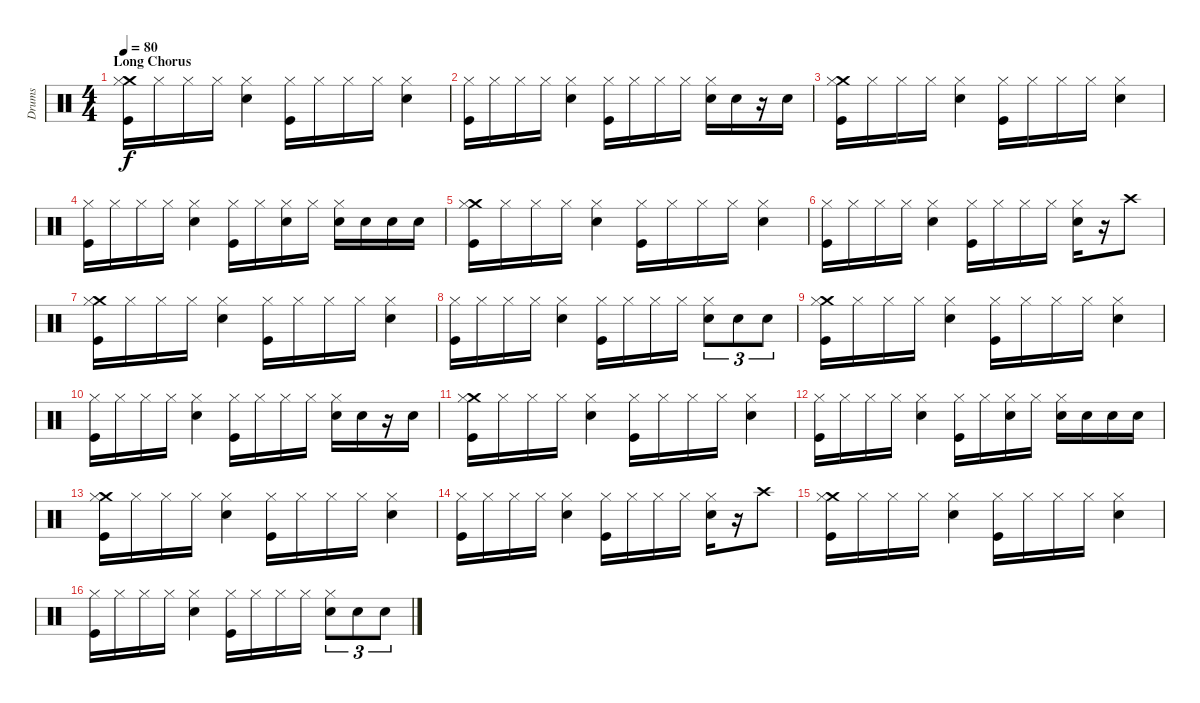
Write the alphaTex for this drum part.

\track ("Drums" "Drums") {instrument percussion}
\staff {score}
\articulation defaults
\ts (4 4)
\section ("" "Long Chorus")
\tempo 80
\clef neutral
\ks c
("Crash medium (hit)" "Hi-Hat (closed)" "Kick (hit)").16{dy f} "Hi-Hat (closed)".16 "Hi-Hat (closed)".16 "Hi-Hat (closed)".16 ("Hi-Hat (closed)" "Snare (hit) 2").4 ("Hi-Hat (closed)" "Kick (hit)").16 "Hi-Hat (closed)".16 "Hi-Hat (closed)".16 "Hi-Hat (closed)".16 ("Hi-Hat (closed)" "Snare (hit) 2").4 |
("Hi-Hat (closed)" "Kick (hit)").16 "Hi-Hat (closed)".16 "Hi-Hat (closed)".16 "Hi-Hat (closed)".16 ("Hi-Hat (closed)" "Snare (hit) 2").4 ("Hi-Hat (closed)" "Kick (hit)").16 "Hi-Hat (closed)".16 "Hi-Hat (closed)".16 "Hi-Hat (closed)".16 ("Hi-Hat (closed)" "Snare (hit) 2").16 "Snare (hit) 2".16 r.16 "Snare (hit) 2".16 |
("Crash medium (hit)" "Hi-Hat (closed)" "Kick (hit)").16 "Hi-Hat (closed)".16 "Hi-Hat (closed)".16 "Hi-Hat (closed)".16 ("Hi-Hat (closed)" "Snare (hit) 2").4 ("Hi-Hat (closed)" "Kick (hit)").16 "Hi-Hat (closed)".16 "Hi-Hat (closed)".16 "Hi-Hat (closed)".16 ("Hi-Hat (closed)" "Snare (hit) 2").4 |
("Hi-Hat (closed)" "Kick (hit)").16 "Hi-Hat (closed)".16 "Hi-Hat (closed)".16 "Hi-Hat (closed)".16 ("Hi-Hat (closed)" "Snare (hit) 2").4 ("Hi-Hat (closed)" "Kick (hit)").16 "Hi-Hat (closed)".16 ("Hi-Hat (closed)" "Snare (hit) 2").16 "Hi-Hat (closed)".16 ("Hi-Hat (closed)" "Snare (hit) 2").16 "Snare (hit) 2".16 "Snare (hit) 2".16 "Snare (hit) 2".16 |
("Crash medium (hit)" "Hi-Hat (closed)" "Kick (hit)").16 "Hi-Hat (closed)".16 "Hi-Hat (closed)".16 "Hi-Hat (closed)".16 ("Hi-Hat (closed)" "Snare (hit) 2").4 ("Hi-Hat (closed)" "Kick (hit)").16 "Hi-Hat (closed)".16 "Hi-Hat (closed)".16 "Hi-Hat (closed)".16 ("Hi-Hat (closed)" "Snare (hit) 2").4 |
("Hi-Hat (closed)" "Kick (hit)").16 "Hi-Hat (closed)".16 "Hi-Hat (closed)".16 "Hi-Hat (closed)".16 ("Hi-Hat (closed)" "Snare (hit) 2").4 ("Hi-Hat (closed)" "Kick (hit)").16 "Hi-Hat (closed)".16 "Hi-Hat (closed)".16 "Hi-Hat (closed)".16 ("Hi-Hat (closed)" "Snare (hit) 2").16 r.16 "Crash high (hit)".8 |
("Crash medium (hit)" "Hi-Hat (closed)" "Kick (hit)").16 "Hi-Hat (closed)".16 "Hi-Hat (closed)".16 "Hi-Hat (closed)".16 ("Hi-Hat (closed)" "Snare (hit) 2").4 ("Hi-Hat (closed)" "Kick (hit)").16 "Hi-Hat (closed)".16 "Hi-Hat (closed)".16 "Hi-Hat (closed)".16 ("Hi-Hat (closed)" "Snare (hit) 2").4 |
("Hi-Hat (closed)" "Kick (hit)").16 "Hi-Hat (closed)".16 "Hi-Hat (closed)".16 "Hi-Hat (closed)".16 ("Hi-Hat (closed)" "Snare (hit) 2").4 ("Hi-Hat (closed)" "Kick (hit)").16 "Hi-Hat (closed)".16 "Hi-Hat (closed)".16 "Hi-Hat (closed)".16 ("Hi-Hat (closed)" "Snare (hit) 2").8{tu (3 2)} "Snare (hit) 2".8{tu (3 2)} "Snare (hit) 2".8{tu (3 2)} |
("Crash medium (hit)" "Hi-Hat (closed)" "Kick (hit)").16 "Hi-Hat (closed)".16 "Hi-Hat (closed)".16 "Hi-Hat (closed)".16 ("Hi-Hat (closed)" "Snare (hit) 2").4 ("Hi-Hat (closed)" "Kick (hit)").16 "Hi-Hat (closed)".16 "Hi-Hat (closed)".16 "Hi-Hat (closed)".16 ("Hi-Hat (closed)" "Snare (hit) 2").4 |
("Hi-Hat (closed)" "Kick (hit)").16 "Hi-Hat (closed)".16 "Hi-Hat (closed)".16 "Hi-Hat (closed)".16 ("Hi-Hat (closed)" "Snare (hit) 2").4 ("Hi-Hat (closed)" "Kick (hit)").16 "Hi-Hat (closed)".16 "Hi-Hat (closed)".16 "Hi-Hat (closed)".16 ("Hi-Hat (closed)" "Snare (hit) 2").16 "Snare (hit) 2".16 r.16 "Snare (hit) 2".16 |
("Crash medium (hit)" "Hi-Hat (closed)" "Kick (hit)").16 "Hi-Hat (closed)".16 "Hi-Hat (closed)".16 "Hi-Hat (closed)".16 ("Hi-Hat (closed)" "Snare (hit) 2").4 ("Hi-Hat (closed)" "Kick (hit)").16 "Hi-Hat (closed)".16 "Hi-Hat (closed)".16 "Hi-Hat (closed)".16 ("Hi-Hat (closed)" "Snare (hit) 2").4 |
("Hi-Hat (closed)" "Kick (hit)").16 "Hi-Hat (closed)".16 "Hi-Hat (closed)".16 "Hi-Hat (closed)".16 ("Hi-Hat (closed)" "Snare (hit) 2").4 ("Hi-Hat (closed)" "Kick (hit)").16 "Hi-Hat (closed)".16 ("Hi-Hat (closed)" "Snare (hit) 2").16 "Hi-Hat (closed)".16 ("Hi-Hat (closed)" "Snare (hit) 2").16 "Snare (hit) 2".16 "Snare (hit) 2".16 "Snare (hit) 2".16 |
("Crash medium (hit)" "Hi-Hat (closed)" "Kick (hit)").16 "Hi-Hat (closed)".16 "Hi-Hat (closed)".16 "Hi-Hat (closed)".16 ("Hi-Hat (closed)" "Snare (hit) 2").4 ("Hi-Hat (closed)" "Kick (hit)").16 "Hi-Hat (closed)".16 "Hi-Hat (closed)".16 "Hi-Hat (closed)".16 ("Hi-Hat (closed)" "Snare (hit) 2").4 |
("Hi-Hat (closed)" "Kick (hit)").16 "Hi-Hat (closed)".16 "Hi-Hat (closed)".16 "Hi-Hat (closed)".16 ("Hi-Hat (closed)" "Snare (hit) 2").4 ("Hi-Hat (closed)" "Kick (hit)").16 "Hi-Hat (closed)".16 "Hi-Hat (closed)".16 "Hi-Hat (closed)".16 ("Hi-Hat (closed)" "Snare (hit) 2").16 r.16 "Crash high (hit)".8 |
("Crash medium (hit)" "Hi-Hat (closed)" "Kick (hit)").16 "Hi-Hat (closed)".16 "Hi-Hat (closed)".16 "Hi-Hat (closed)".16 ("Hi-Hat (closed)" "Snare (hit) 2").4 ("Hi-Hat (closed)" "Kick (hit)").16 "Hi-Hat (closed)".16 "Hi-Hat (closed)".16 "Hi-Hat (closed)".16 ("Hi-Hat (closed)" "Snare (hit) 2").4 |
("Hi-Hat (closed)" "Kick (hit)").16 "Hi-Hat (closed)".16 "Hi-Hat (closed)".16 "Hi-Hat (closed)".16 ("Hi-Hat (closed)" "Snare (hit) 2").4 ("Hi-Hat (closed)" "Kick (hit)").16 "Hi-Hat (closed)".16 "Hi-Hat (closed)".16 "Hi-Hat (closed)".16 ("Hi-Hat (closed)" "Snare (hit) 2").8{tu (3 2)} "Snare (hit) 2".8{tu (3 2)} "Snare (hit) 2".8{tu (3 2)}
